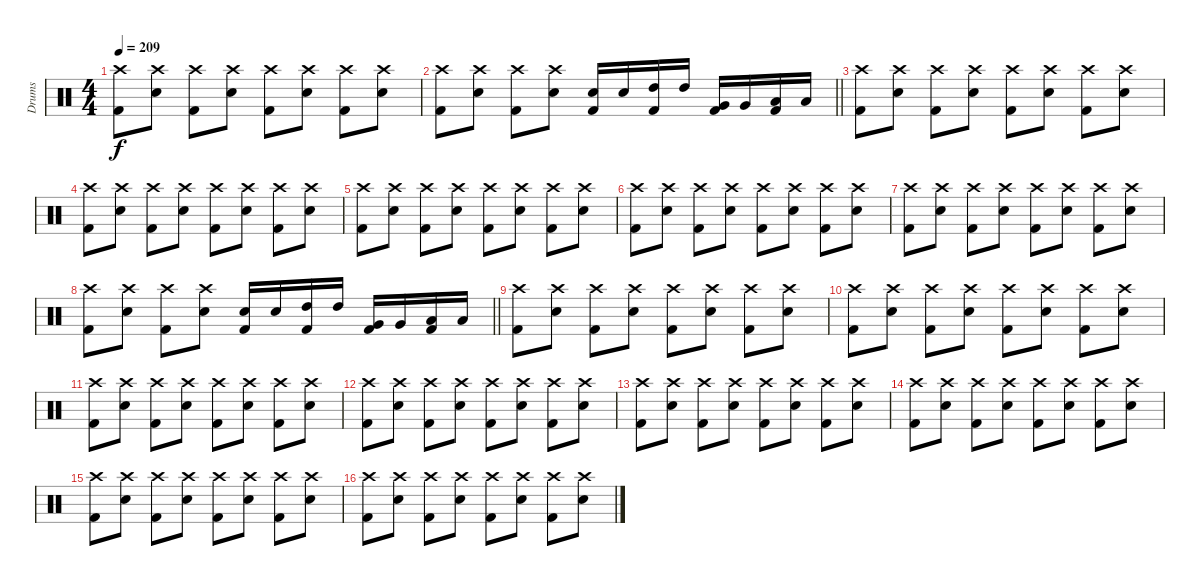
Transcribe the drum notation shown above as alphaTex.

\track ("Drums" "Drums") {instrument percussion}
\staff {score}
\articulation defaults
\ts (4 4)
\tempo 209
\clef neutral
\ks c
("Crash high (hit)" "Kick (hit) 2").8{dy f} ("Crash high (hit)" "Electric Snare (hit)").8 ("Crash high (hit)" "Kick (hit) 2").8 ("Crash high (hit)" "Electric Snare (hit)").8 ("Crash high (hit)" "Kick (hit) 2").8 ("Crash high (hit)" "Electric Snare (hit)").8 ("Crash high (hit)" "Kick (hit) 2").8 ("Crash high (hit)" "Electric Snare (hit)").8 |
\barLineRight lightlight
("Crash high (hit)" "Kick (hit) 2").8 ("Crash high (hit)" "Electric Snare (hit)").8 ("Crash high (hit)" "Kick (hit) 2").8 ("Crash high (hit)" "Electric Snare (hit)").8 ("Electric Snare (hit)" "Kick (hit) 2").16 "Electric Snare (hit)".16 ("High Tom (hit)" "Kick (hit) 2").16 "High Tom (hit)".16 ("Very Low Tom (hit)" "Kick (hit) 2").16 "Very Low Tom (hit)".16 ("Low Floor Tom (hit)" "Kick (hit) 2").16 "Low Floor Tom (hit)".16 |
("Crash high (hit)" "Kick (hit) 2").8 ("Crash high (hit)" "Electric Snare (hit)").8 ("Crash high (hit)" "Kick (hit) 2").8 ("Crash high (hit)" "Electric Snare (hit)").8 ("Crash high (hit)" "Kick (hit) 2").8 ("Crash high (hit)" "Electric Snare (hit)").8 ("Crash high (hit)" "Kick (hit) 2").8 ("Crash high (hit)" "Electric Snare (hit)").8 |
("Crash high (hit)" "Kick (hit) 2").8 ("Crash high (hit)" "Electric Snare (hit)").8 ("Crash high (hit)" "Kick (hit) 2").8 ("Crash high (hit)" "Electric Snare (hit)").8 ("Crash high (hit)" "Kick (hit) 2").8 ("Crash high (hit)" "Electric Snare (hit)").8 ("Crash high (hit)" "Kick (hit) 2").8 ("Crash high (hit)" "Electric Snare (hit)").8 |
("Crash high (hit)" "Kick (hit) 2").8 ("Crash high (hit)" "Electric Snare (hit)").8 ("Crash high (hit)" "Kick (hit) 2").8 ("Crash high (hit)" "Electric Snare (hit)").8 ("Crash high (hit)" "Kick (hit) 2").8 ("Crash high (hit)" "Electric Snare (hit)").8 ("Crash high (hit)" "Kick (hit) 2").8 ("Crash high (hit)" "Electric Snare (hit)").8 |
("Crash high (hit)" "Kick (hit) 2").8 ("Crash high (hit)" "Electric Snare (hit)").8 ("Crash high (hit)" "Kick (hit) 2").8 ("Crash high (hit)" "Electric Snare (hit)").8 ("Crash high (hit)" "Kick (hit) 2").8 ("Crash high (hit)" "Electric Snare (hit)").8 ("Crash high (hit)" "Kick (hit) 2").8 ("Crash high (hit)" "Electric Snare (hit)").8 |
("Crash high (hit)" "Kick (hit) 2").8 ("Crash high (hit)" "Electric Snare (hit)").8 ("Crash high (hit)" "Kick (hit) 2").8 ("Crash high (hit)" "Electric Snare (hit)").8 ("Crash high (hit)" "Kick (hit) 2").8 ("Crash high (hit)" "Electric Snare (hit)").8 ("Crash high (hit)" "Kick (hit) 2").8 ("Crash high (hit)" "Electric Snare (hit)").8 |
\barLineRight lightlight
("Crash high (hit)" "Kick (hit) 2").8 ("Crash high (hit)" "Electric Snare (hit)").8 ("Crash high (hit)" "Kick (hit) 2").8 ("Crash high (hit)" "Electric Snare (hit)").8 ("Electric Snare (hit)" "Kick (hit) 2").16 "Electric Snare (hit)".16 ("High Tom (hit)" "Kick (hit) 2").16 "High Tom (hit)".16 ("Very Low Tom (hit)" "Kick (hit) 2").16 "Very Low Tom (hit)".16 ("Low Floor Tom (hit)" "Kick (hit) 2").16 "Low Floor Tom (hit)".16 |
("Crash high (hit)" "Kick (hit) 2").8 ("Crash high (hit)" "Electric Snare (hit)").8 ("Crash high (hit)" "Kick (hit) 2").8 ("Crash high (hit)" "Electric Snare (hit)").8 ("Crash high (hit)" "Kick (hit) 2").8 ("Crash high (hit)" "Electric Snare (hit)").8 ("Crash high (hit)" "Kick (hit) 2").8 ("Crash high (hit)" "Electric Snare (hit)").8 |
("Crash high (hit)" "Kick (hit) 2").8 ("Crash high (hit)" "Electric Snare (hit)").8 ("Crash high (hit)" "Kick (hit) 2").8 ("Crash high (hit)" "Electric Snare (hit)").8 ("Crash high (hit)" "Kick (hit) 2").8 ("Crash high (hit)" "Electric Snare (hit)").8 ("Crash high (hit)" "Kick (hit) 2").8 ("Crash high (hit)" "Electric Snare (hit)").8 |
("Crash high (hit)" "Kick (hit) 2").8 ("Crash high (hit)" "Electric Snare (hit)").8 ("Crash high (hit)" "Kick (hit) 2").8 ("Crash high (hit)" "Electric Snare (hit)").8 ("Crash high (hit)" "Kick (hit) 2").8 ("Crash high (hit)" "Electric Snare (hit)").8 ("Crash high (hit)" "Kick (hit) 2").8 ("Crash high (hit)" "Electric Snare (hit)").8 |
("Crash high (hit)" "Kick (hit) 2").8 ("Crash high (hit)" "Electric Snare (hit)").8 ("Crash high (hit)" "Kick (hit) 2").8 ("Crash high (hit)" "Electric Snare (hit)").8 ("Crash high (hit)" "Kick (hit) 2").8 ("Crash high (hit)" "Electric Snare (hit)").8 ("Crash high (hit)" "Kick (hit) 2").8 ("Crash high (hit)" "Electric Snare (hit)").8 |
("Crash high (hit)" "Kick (hit) 2").8 ("Crash high (hit)" "Electric Snare (hit)").8 ("Crash high (hit)" "Kick (hit) 2").8 ("Crash high (hit)" "Electric Snare (hit)").8 ("Crash high (hit)" "Kick (hit) 2").8 ("Crash high (hit)" "Electric Snare (hit)").8 ("Crash high (hit)" "Kick (hit) 2").8 ("Crash high (hit)" "Electric Snare (hit)").8 |
("Crash high (hit)" "Kick (hit) 2").8 ("Crash high (hit)" "Electric Snare (hit)").8 ("Crash high (hit)" "Kick (hit) 2").8 ("Crash high (hit)" "Electric Snare (hit)").8 ("Crash high (hit)" "Kick (hit) 2").8 ("Crash high (hit)" "Electric Snare (hit)").8 ("Crash high (hit)" "Kick (hit) 2").8 ("Crash high (hit)" "Electric Snare (hit)").8 |
("Crash high (hit)" "Kick (hit) 2").8 ("Crash high (hit)" "Electric Snare (hit)").8 ("Crash high (hit)" "Kick (hit) 2").8 ("Crash high (hit)" "Electric Snare (hit)").8 ("Crash high (hit)" "Kick (hit) 2").8 ("Crash high (hit)" "Electric Snare (hit)").8 ("Crash high (hit)" "Kick (hit) 2").8 ("Crash high (hit)" "Electric Snare (hit)").8 |
("Crash high (hit)" "Kick (hit) 2").8 ("Crash high (hit)" "Electric Snare (hit)").8 ("Crash high (hit)" "Kick (hit) 2").8 ("Crash high (hit)" "Electric Snare (hit)").8 ("Crash high (hit)" "Kick (hit) 2").8 ("Crash high (hit)" "Electric Snare (hit)").8 ("Crash high (hit)" "Kick (hit) 2").8 ("Crash high (hit)" "Electric Snare (hit)").8
